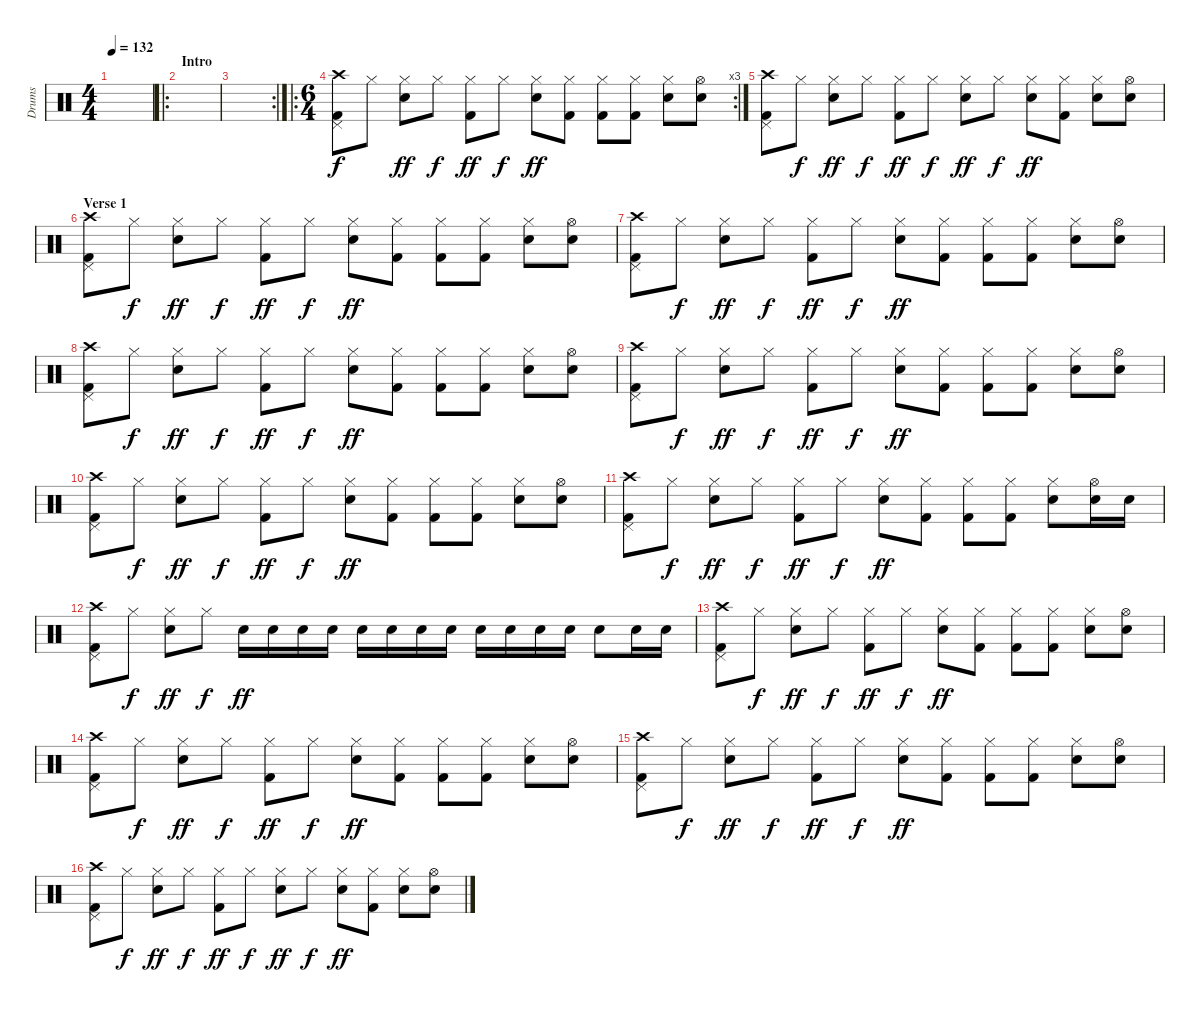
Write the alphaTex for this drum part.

\track ("Drums" "Drums") {instrument percussion}
\staff {score}
\articulation defaults
\ts (4 4)
\tempo 132
\clef neutral
\ks c
|
\ro
\section ("" "Intro")
|
\rc 2
|
\ro
\rc 3
\ts (6 4)
("Pedal Hi-Hat (hit)" "Crash high (hit)" "Kick (hit) 2").8 "Hi-Hat (closed)".8{dy f} ("Hi-Hat (closed)" "Electric Snare (hit)").8{dy ff} "Hi-Hat (closed)".8{dy f} ("Hi-Hat (closed)" "Kick (hit) 2").8{dy ff} "Hi-Hat (closed)".8{dy f} ("Hi-Hat (closed)" "Electric Snare (hit)").8{dy ff} ("Hi-Hat (closed)" "Kick (hit) 2").8 ("Hi-Hat (closed)" "Kick (hit) 2").8 ("Hi-Hat (closed)" "Kick (hit) 2").8 ("Hi-Hat (closed)" "Electric Snare (hit)").8 ("Hi-Hat (open)" "Electric Snare (hit)").8 |
("Pedal Hi-Hat (hit)" "Crash high (hit)" "Kick (hit) 2").8 "Hi-Hat (closed)".8{dy f} ("Hi-Hat (closed)" "Electric Snare (hit)").8{dy ff} "Hi-Hat (closed)".8{dy f} ("Hi-Hat (closed)" "Kick (hit) 2").8{dy ff} "Hi-Hat (closed)".8{dy f} ("Hi-Hat (closed)" "Electric Snare (hit)").8{dy ff} "Hi-Hat (closed)".8{dy f} ("Hi-Hat (closed)" "Electric Snare (hit)").8{dy ff} ("Hi-Hat (closed)" "Kick (hit) 2").8 ("Hi-Hat (closed)" "Electric Snare (hit)").8 ("Hi-Hat (open)" "Electric Snare (hit)").8 |
\section ("" "Verse 1")
("Pedal Hi-Hat (hit)" "Crash high (hit)" "Kick (hit) 2").8 "Hi-Hat (closed)".8{dy f} ("Hi-Hat (closed)" "Electric Snare (hit)").8{dy ff} "Hi-Hat (closed)".8{dy f} ("Hi-Hat (closed)" "Kick (hit) 2").8{dy ff} "Hi-Hat (closed)".8{dy f} ("Hi-Hat (closed)" "Electric Snare (hit)").8{dy ff} ("Hi-Hat (closed)" "Kick (hit) 2").8 ("Hi-Hat (closed)" "Kick (hit) 2").8 ("Hi-Hat (closed)" "Kick (hit) 2").8 ("Hi-Hat (closed)" "Electric Snare (hit)").8 ("Hi-Hat (open)" "Electric Snare (hit)").8 |
("Pedal Hi-Hat (hit)" "Crash high (hit)" "Kick (hit) 2").8 "Hi-Hat (closed)".8{dy f} ("Hi-Hat (closed)" "Electric Snare (hit)").8{dy ff} "Hi-Hat (closed)".8{dy f} ("Hi-Hat (closed)" "Kick (hit) 2").8{dy ff} "Hi-Hat (closed)".8{dy f} ("Hi-Hat (closed)" "Electric Snare (hit)").8{dy ff} ("Hi-Hat (closed)" "Kick (hit) 2").8 ("Hi-Hat (closed)" "Kick (hit) 2").8 ("Hi-Hat (closed)" "Kick (hit) 2").8 ("Hi-Hat (closed)" "Electric Snare (hit)").8 ("Hi-Hat (open)" "Electric Snare (hit)").8 |
("Pedal Hi-Hat (hit)" "Crash high (hit)" "Kick (hit) 2").8 "Hi-Hat (closed)".8{dy f} ("Hi-Hat (closed)" "Electric Snare (hit)").8{dy ff} "Hi-Hat (closed)".8{dy f} ("Hi-Hat (closed)" "Kick (hit) 2").8{dy ff} "Hi-Hat (closed)".8{dy f} ("Hi-Hat (closed)" "Electric Snare (hit)").8{dy ff} ("Hi-Hat (closed)" "Kick (hit) 2").8 ("Hi-Hat (closed)" "Kick (hit) 2").8 ("Hi-Hat (closed)" "Kick (hit) 2").8 ("Hi-Hat (closed)" "Electric Snare (hit)").8 ("Hi-Hat (open)" "Electric Snare (hit)").8 |
("Pedal Hi-Hat (hit)" "Crash high (hit)" "Kick (hit) 2").8 "Hi-Hat (closed)".8{dy f} ("Hi-Hat (closed)" "Electric Snare (hit)").8{dy ff} "Hi-Hat (closed)".8{dy f} ("Hi-Hat (closed)" "Kick (hit) 2").8{dy ff} "Hi-Hat (closed)".8{dy f} ("Hi-Hat (closed)" "Electric Snare (hit)").8{dy ff} ("Hi-Hat (closed)" "Kick (hit) 2").8 ("Hi-Hat (closed)" "Kick (hit) 2").8 ("Hi-Hat (closed)" "Kick (hit) 2").8 ("Hi-Hat (closed)" "Electric Snare (hit)").8 ("Hi-Hat (open)" "Electric Snare (hit)").8 |
("Pedal Hi-Hat (hit)" "Crash high (hit)" "Kick (hit) 2").8 "Hi-Hat (closed)".8{dy f} ("Hi-Hat (closed)" "Electric Snare (hit)").8{dy ff} "Hi-Hat (closed)".8{dy f} ("Hi-Hat (closed)" "Kick (hit) 2").8{dy ff} "Hi-Hat (closed)".8{dy f} ("Hi-Hat (closed)" "Electric Snare (hit)").8{dy ff} ("Hi-Hat (closed)" "Kick (hit) 2").8 ("Hi-Hat (closed)" "Kick (hit) 2").8 ("Hi-Hat (closed)" "Kick (hit) 2").8 ("Hi-Hat (closed)" "Electric Snare (hit)").8 ("Hi-Hat (open)" "Electric Snare (hit)").8 |
("Pedal Hi-Hat (hit)" "Crash high (hit)" "Kick (hit) 2").8 "Hi-Hat (closed)".8{dy f} ("Hi-Hat (closed)" "Electric Snare (hit)").8{dy ff} "Hi-Hat (closed)".8{dy f} ("Hi-Hat (closed)" "Kick (hit) 2").8{dy ff} "Hi-Hat (closed)".8{dy f} ("Hi-Hat (closed)" "Electric Snare (hit)").8{dy ff} ("Hi-Hat (closed)" "Kick (hit) 2").8 ("Hi-Hat (closed)" "Kick (hit) 2").8 ("Hi-Hat (closed)" "Kick (hit) 2").8 ("Hi-Hat (closed)" "Electric Snare (hit)").8 ("Hi-Hat (open)" "Electric Snare (hit)").16 "Electric Snare (hit)".16 |
("Pedal Hi-Hat (hit)" "Crash high (hit)" "Kick (hit) 2").8 "Hi-Hat (closed)".8{dy f} ("Hi-Hat (closed)" "Electric Snare (hit)").8{dy ff} "Hi-Hat (closed)".8{dy f} "Electric Snare (hit)".16{dy ff} "Electric Snare (hit)".16 "Electric Snare (hit)".16 "Electric Snare (hit)".16 "Electric Snare (hit)".16 "Electric Snare (hit)".16 "Electric Snare (hit)".16 "Electric Snare (hit)".16 "Electric Snare (hit)".16 "Electric Snare (hit)".16 "Electric Snare (hit)".16 "Electric Snare (hit)".16 "Electric Snare (hit)".8 "Electric Snare (hit)".16 "Electric Snare (hit)".16 |
("Pedal Hi-Hat (hit)" "Crash high (hit)" "Kick (hit) 2").8 "Hi-Hat (closed)".8{dy f} ("Hi-Hat (closed)" "Electric Snare (hit)").8{dy ff} "Hi-Hat (closed)".8{dy f} ("Hi-Hat (closed)" "Kick (hit) 2").8{dy ff} "Hi-Hat (closed)".8{dy f} ("Hi-Hat (closed)" "Electric Snare (hit)").8{dy ff} ("Hi-Hat (closed)" "Kick (hit) 2").8 ("Hi-Hat (closed)" "Kick (hit) 2").8 ("Hi-Hat (closed)" "Kick (hit) 2").8 ("Hi-Hat (closed)" "Electric Snare (hit)").8 ("Hi-Hat (open)" "Electric Snare (hit)").8 |
("Pedal Hi-Hat (hit)" "Crash high (hit)" "Kick (hit) 2").8 "Hi-Hat (closed)".8{dy f} ("Hi-Hat (closed)" "Electric Snare (hit)").8{dy ff} "Hi-Hat (closed)".8{dy f} ("Hi-Hat (closed)" "Kick (hit) 2").8{dy ff} "Hi-Hat (closed)".8{dy f} ("Hi-Hat (closed)" "Electric Snare (hit)").8{dy ff} ("Hi-Hat (closed)" "Kick (hit) 2").8 ("Hi-Hat (closed)" "Kick (hit) 2").8 ("Hi-Hat (closed)" "Kick (hit) 2").8 ("Hi-Hat (closed)" "Electric Snare (hit)").8 ("Hi-Hat (open)" "Electric Snare (hit)").8 |
("Pedal Hi-Hat (hit)" "Crash high (hit)" "Kick (hit) 2").8 "Hi-Hat (closed)".8{dy f} ("Hi-Hat (closed)" "Electric Snare (hit)").8{dy ff} "Hi-Hat (closed)".8{dy f} ("Hi-Hat (closed)" "Kick (hit) 2").8{dy ff} "Hi-Hat (closed)".8{dy f} ("Hi-Hat (closed)" "Electric Snare (hit)").8{dy ff} ("Hi-Hat (closed)" "Kick (hit) 2").8 ("Hi-Hat (closed)" "Kick (hit) 2").8 ("Hi-Hat (closed)" "Kick (hit) 2").8 ("Hi-Hat (closed)" "Electric Snare (hit)").8 ("Hi-Hat (open)" "Electric Snare (hit)").8 |
("Pedal Hi-Hat (hit)" "Crash high (hit)" "Kick (hit) 2").8 "Hi-Hat (closed)".8{dy f} ("Hi-Hat (closed)" "Electric Snare (hit)").8{dy ff} "Hi-Hat (closed)".8{dy f} ("Hi-Hat (closed)" "Kick (hit) 2").8{dy ff} "Hi-Hat (closed)".8{dy f} ("Hi-Hat (closed)" "Electric Snare (hit)").8{dy ff} "Hi-Hat (closed)".8{dy f} ("Hi-Hat (closed)" "Electric Snare (hit)").8{dy ff} ("Hi-Hat (closed)" "Kick (hit) 2").8 ("Hi-Hat (closed)" "Electric Snare (hit)").8 ("Hi-Hat (open)" "Electric Snare (hit)").8
